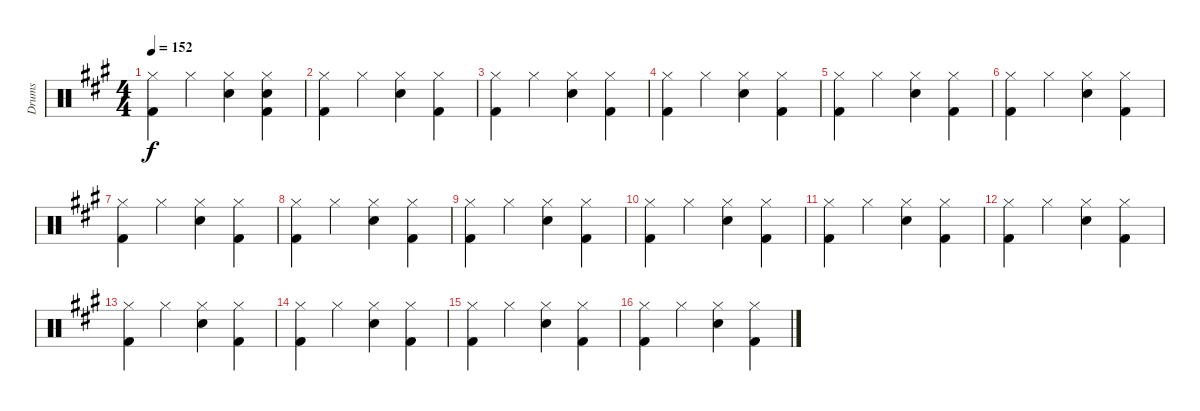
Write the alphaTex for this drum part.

\track ("Drums" "Drums") {instrument percussion}
\staff {score}
\articulation defaults
\ts (4 4)
\tempo 152
\clef neutral
\ks a
("Hi-Hat (closed)" "Kick (hit) 2").4{dy f} "Hi-Hat (closed)".4 ("Hi-Hat (closed)" "Electric Snare (hit)").4 ("Hi-Hat (closed)" "Electric Snare (hit)" "Kick (hit) 2").4 |
("Hi-Hat (closed)" "Kick (hit) 2").4 "Hi-Hat (closed)".4 ("Hi-Hat (closed)" "Electric Snare (hit)").4 ("Hi-Hat (closed)" "Kick (hit) 2").4 |
("Hi-Hat (closed)" "Kick (hit) 2").4 "Hi-Hat (closed)".4 ("Hi-Hat (closed)" "Electric Snare (hit)").4 ("Hi-Hat (closed)" "Kick (hit) 2").4 |
("Hi-Hat (closed)" "Kick (hit) 2").4 "Hi-Hat (closed)".4 ("Hi-Hat (closed)" "Electric Snare (hit)").4 ("Hi-Hat (closed)" "Kick (hit) 2").4 |
("Hi-Hat (closed)" "Kick (hit) 2").4 "Hi-Hat (closed)".4 ("Hi-Hat (closed)" "Electric Snare (hit)").4 ("Hi-Hat (closed)" "Kick (hit) 2").4 |
("Hi-Hat (closed)" "Kick (hit) 2").4 "Hi-Hat (closed)".4 ("Hi-Hat (closed)" "Electric Snare (hit)").4 ("Hi-Hat (closed)" "Kick (hit) 2").4 |
("Hi-Hat (closed)" "Kick (hit) 2").4 "Hi-Hat (closed)".4 ("Hi-Hat (closed)" "Electric Snare (hit)").4 ("Hi-Hat (closed)" "Kick (hit) 2").4 |
("Hi-Hat (closed)" "Kick (hit) 2").4 "Hi-Hat (closed)".4 ("Hi-Hat (closed)" "Electric Snare (hit)").4 ("Hi-Hat (closed)" "Kick (hit) 2").4 |
("Hi-Hat (closed)" "Kick (hit) 2").4 "Hi-Hat (closed)".4 ("Hi-Hat (closed)" "Electric Snare (hit)").4 ("Hi-Hat (closed)" "Kick (hit) 2").4 |
("Hi-Hat (closed)" "Kick (hit) 2").4 "Hi-Hat (closed)".4 ("Hi-Hat (closed)" "Electric Snare (hit)").4 ("Hi-Hat (closed)" "Kick (hit) 2").4 |
("Hi-Hat (closed)" "Kick (hit) 2").4 "Hi-Hat (closed)".4 ("Hi-Hat (closed)" "Electric Snare (hit)").4 ("Hi-Hat (closed)" "Kick (hit) 2").4 |
("Hi-Hat (closed)" "Kick (hit) 2").4 "Hi-Hat (closed)".4 ("Hi-Hat (closed)" "Electric Snare (hit)").4 ("Hi-Hat (closed)" "Kick (hit) 2").4 |
("Hi-Hat (closed)" "Kick (hit) 2").4 "Hi-Hat (closed)".4 ("Hi-Hat (closed)" "Electric Snare (hit)").4 ("Hi-Hat (closed)" "Kick (hit) 2").4 |
("Hi-Hat (closed)" "Kick (hit) 2").4 "Hi-Hat (closed)".4 ("Hi-Hat (closed)" "Electric Snare (hit)").4 ("Hi-Hat (closed)" "Kick (hit) 2").4 |
("Hi-Hat (closed)" "Kick (hit) 2").4 "Hi-Hat (closed)".4 ("Hi-Hat (closed)" "Electric Snare (hit)").4 ("Hi-Hat (closed)" "Kick (hit) 2").4 |
("Hi-Hat (closed)" "Kick (hit) 2").4 "Hi-Hat (closed)".4 ("Hi-Hat (closed)" "Electric Snare (hit)").4 ("Hi-Hat (closed)" "Kick (hit) 2").4
